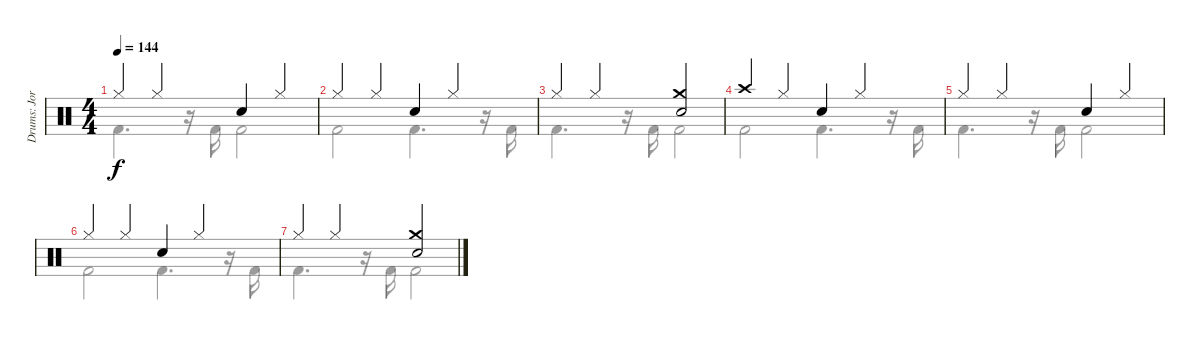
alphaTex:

\track ("Drums: Jorg" "Drums: Jor") {instrument percussion}
\staff {score}
\articulation defaults
\voice
\ts (4 4)
\tempo 144
\clef neutral
\ks c "Hi-Hat (closed)".4{dy f} "Hi-Hat (closed)".4 "Snare (hit) 2".4 "Hi-Hat (closed)".4
|
"Hi-Hat (closed)".4 "Hi-Hat (closed)".4 "Snare (hit) 2".4 "Hi-Hat (closed)".4 |
"Hi-Hat (closed)".4 "Hi-Hat (closed)".4 ("Crash medium (hit)" "Snare (hit) 2").2 |
"Crash high (hit)".4 "Hi-Hat (closed)".4 "Snare (hit) 2".4 "Hi-Hat (closed)".4 |
"Hi-Hat (closed)".4 "Hi-Hat (closed)".4 "Snare (hit) 2".4 "Hi-Hat (closed)".4 |
"Hi-Hat (closed)".4 "Hi-Hat (closed)".4 "Snare (hit) 2".4 "Hi-Hat (closed)".4 |
"Hi-Hat (closed)".4 "Hi-Hat (closed)".4 ("Crash medium (hit)" "Snare (hit) 2").2
\voice
\clef neutral
\ottava regular
\simile none
\ks c "Kick (hit) 2".4{d dy f}
r.16 "Kick (hit) 2".16 "Kick (hit) 2".2 |
"Kick (hit) 2".2 "Kick (hit) 2".4{d} r.16 "Kick (hit) 2".16 |
"Kick (hit) 2".4{d} r.16 "Kick (hit) 2".16 "Kick (hit) 2".2 |
"Kick (hit) 2".2 "Kick (hit) 2".4{d} r.16 "Kick (hit) 2".16 |
"Kick (hit) 2".4{d} r.16 "Kick (hit) 2".16 "Kick (hit) 2".2 |
"Kick (hit) 2".2 "Kick (hit) 2".4{d} r.16 "Kick (hit) 2".16 |
"Kick (hit) 2".4{d} r.16 "Kick (hit) 2".16 "Kick (hit) 2".2
